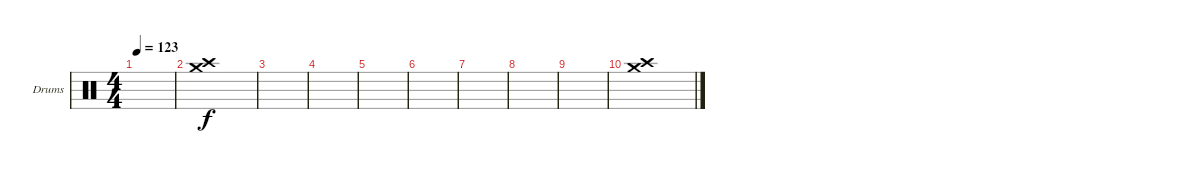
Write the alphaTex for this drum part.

\defaultSystemsLayout 4
\bracketExtendMode groupsimilarinstruments
\firstSystemTrackNameOrientation horizontal
\otherSystemsTrackNameOrientation horizontal
\track ("Drumkit" "Drums") {instrument percussion}
\staff {score}
\articulation defaults
\ts (4 4)
\tempo 123
\clef neutral
\ks c
|
("Crash medium (hit)" "Crash high (hit)").1 |
|
|
|
|
|
|
|
("Crash medium (hit)" "Crash high (hit)").1
